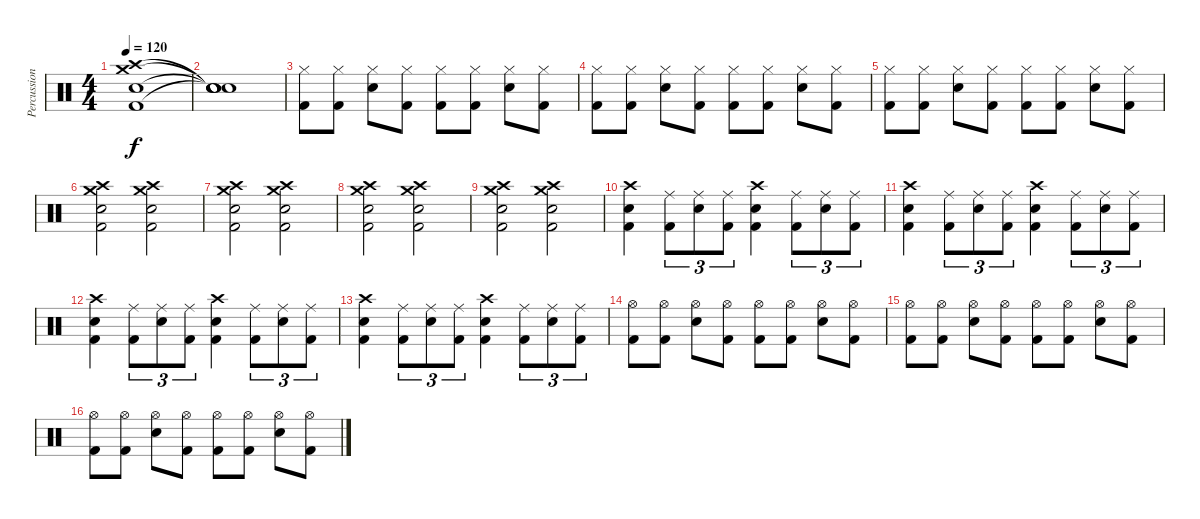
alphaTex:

\track ("Percussion" "Percussion") {instrument percussion}
\staff {score}
\articulation defaults
\ts (4 4)
\tempo 120
\clef neutral
\ks c
("Crash medium (hit)" "Crash high (hit)" "Electric Snare (hit)" "Kick (hit) 2").1{dy f} |
("Snare (hit)"{t} "Snare (hit)"{t} "Snare (hit)"{t} "Snare (hit)"{t}).1 |
("Hi-Hat (closed)" "Kick (hit) 2").8 ("Hi-Hat (closed)" "Kick (hit) 2").8 ("Hi-Hat (closed)" "Electric Snare (hit)").8 ("Hi-Hat (closed)" "Kick (hit) 2").8 ("Hi-Hat (closed)" "Kick (hit) 2").8 ("Hi-Hat (closed)" "Kick (hit) 2").8 ("Hi-Hat (closed)" "Electric Snare (hit)").8 ("Hi-Hat (closed)" "Kick (hit) 2").8 |
("Hi-Hat (closed)" "Kick (hit) 2").8 ("Hi-Hat (closed)" "Kick (hit) 2").8 ("Hi-Hat (closed)" "Electric Snare (hit)").8 ("Hi-Hat (closed)" "Kick (hit) 2").8 ("Hi-Hat (closed)" "Kick (hit) 2").8 ("Hi-Hat (closed)" "Kick (hit) 2").8 ("Hi-Hat (closed)" "Electric Snare (hit)").8 ("Hi-Hat (closed)" "Kick (hit) 2").8 |
("Hi-Hat (closed)" "Kick (hit) 2").8 ("Hi-Hat (closed)" "Kick (hit) 2").8 ("Hi-Hat (closed)" "Electric Snare (hit)").8 ("Hi-Hat (closed)" "Kick (hit) 2").8 ("Hi-Hat (closed)" "Kick (hit) 2").8 ("Hi-Hat (closed)" "Kick (hit) 2").8 ("Hi-Hat (closed)" "Electric Snare (hit)").8 ("Hi-Hat (closed)" "Kick (hit) 2").8 |
("Crash medium (hit)" "Crash high (hit)" "Electric Snare (hit)" "Kick (hit) 2").2 ("Crash medium (hit)" "Crash high (hit)" "Electric Snare (hit)" "Kick (hit) 2").2 |
("Crash medium (hit)" "Crash high (hit)" "Electric Snare (hit)" "Kick (hit) 2").2 ("Crash medium (hit)" "Crash high (hit)" "Electric Snare (hit)" "Kick (hit) 2").2 |
("Crash medium (hit)" "Crash high (hit)" "Electric Snare (hit)" "Kick (hit) 2").2 ("Crash medium (hit)" "Crash high (hit)" "Electric Snare (hit)" "Kick (hit) 2").2 |
("Crash medium (hit)" "Crash high (hit)" "Electric Snare (hit)" "Kick (hit) 2").2 ("Crash medium (hit)" "Crash high (hit)" "Electric Snare (hit)" "Kick (hit) 2").2 |
("Crash high (hit)" "Electric Snare (hit)" "Kick (hit) 2").4 ("Ride (middle)" "Kick (hit) 2").8{tu (3 2)} ("Ride (middle)" "Electric Snare (hit)").8{tu (3 2)} ("Ride (middle)" "Kick (hit) 2").8{tu (3 2)} ("Crash high (hit)" "Electric Snare (hit)" "Kick (hit) 2").4 ("Ride (middle)" "Kick (hit) 2").8{tu (3 2)} ("Ride (middle)" "Electric Snare (hit)").8{tu (3 2)} ("Ride (middle)" "Kick (hit) 2").8{tu (3 2)} |
("Crash high (hit)" "Electric Snare (hit)" "Kick (hit) 2").4 ("Ride (middle)" "Kick (hit) 2").8{tu (3 2)} ("Ride (middle)" "Electric Snare (hit)").8{tu (3 2)} ("Ride (middle)" "Kick (hit) 2").8{tu (3 2)} ("Crash high (hit)" "Electric Snare (hit)" "Kick (hit) 2").4 ("Ride (middle)" "Kick (hit) 2").8{tu (3 2)} ("Ride (middle)" "Electric Snare (hit)").8{tu (3 2)} ("Ride (middle)" "Kick (hit) 2").8{tu (3 2)} |
("Crash high (hit)" "Electric Snare (hit)" "Kick (hit) 2").4 ("Ride (middle)" "Kick (hit) 2").8{tu (3 2)} ("Ride (middle)" "Electric Snare (hit)").8{tu (3 2)} ("Ride (middle)" "Kick (hit) 2").8{tu (3 2)} ("Crash high (hit)" "Electric Snare (hit)" "Kick (hit) 2").4 ("Ride (middle)" "Kick (hit) 2").8{tu (3 2)} ("Ride (middle)" "Electric Snare (hit)").8{tu (3 2)} ("Ride (middle)" "Kick (hit) 2").8{tu (3 2)} |
("Crash high (hit)" "Electric Snare (hit)" "Kick (hit) 2").4 ("Ride (middle)" "Kick (hit) 2").8{tu (3 2)} ("Ride (middle)" "Electric Snare (hit)").8{tu (3 2)} ("Ride (middle)" "Kick (hit) 2").8{tu (3 2)} ("Crash high (hit)" "Electric Snare (hit)" "Kick (hit) 2").4 ("Ride (middle)" "Kick (hit) 2").8{tu (3 2)} ("Ride (middle)" "Electric Snare (hit)").8{tu (3 2)} ("Ride (middle)" "Kick (hit) 2").8{tu (3 2)} |
("Hi-Hat (open)" "Kick (hit) 2").8 ("Hi-Hat (open)" "Kick (hit) 2").8 ("Hi-Hat (open)" "Electric Snare (hit)").8 ("Hi-Hat (open)" "Kick (hit) 2").8 ("Hi-Hat (open)" "Kick (hit) 2").8 ("Hi-Hat (open)" "Kick (hit) 2").8 ("Hi-Hat (open)" "Electric Snare (hit)").8 ("Hi-Hat (open)" "Kick (hit) 2").8 |
("Hi-Hat (open)" "Kick (hit) 2").8 ("Hi-Hat (open)" "Kick (hit) 2").8 ("Hi-Hat (open)" "Electric Snare (hit)").8 ("Hi-Hat (open)" "Kick (hit) 2").8 ("Hi-Hat (open)" "Kick (hit) 2").8 ("Hi-Hat (open)" "Kick (hit) 2").8 ("Hi-Hat (open)" "Electric Snare (hit)").8 ("Hi-Hat (open)" "Kick (hit) 2").8 |
("Hi-Hat (open)" "Kick (hit) 2").8 ("Hi-Hat (open)" "Kick (hit) 2").8 ("Hi-Hat (open)" "Electric Snare (hit)").8 ("Hi-Hat (open)" "Kick (hit) 2").8 ("Hi-Hat (open)" "Kick (hit) 2").8 ("Hi-Hat (open)" "Kick (hit) 2").8 ("Hi-Hat (open)" "Electric Snare (hit)").8 ("Hi-Hat (open)" "Kick (hit) 2").8
